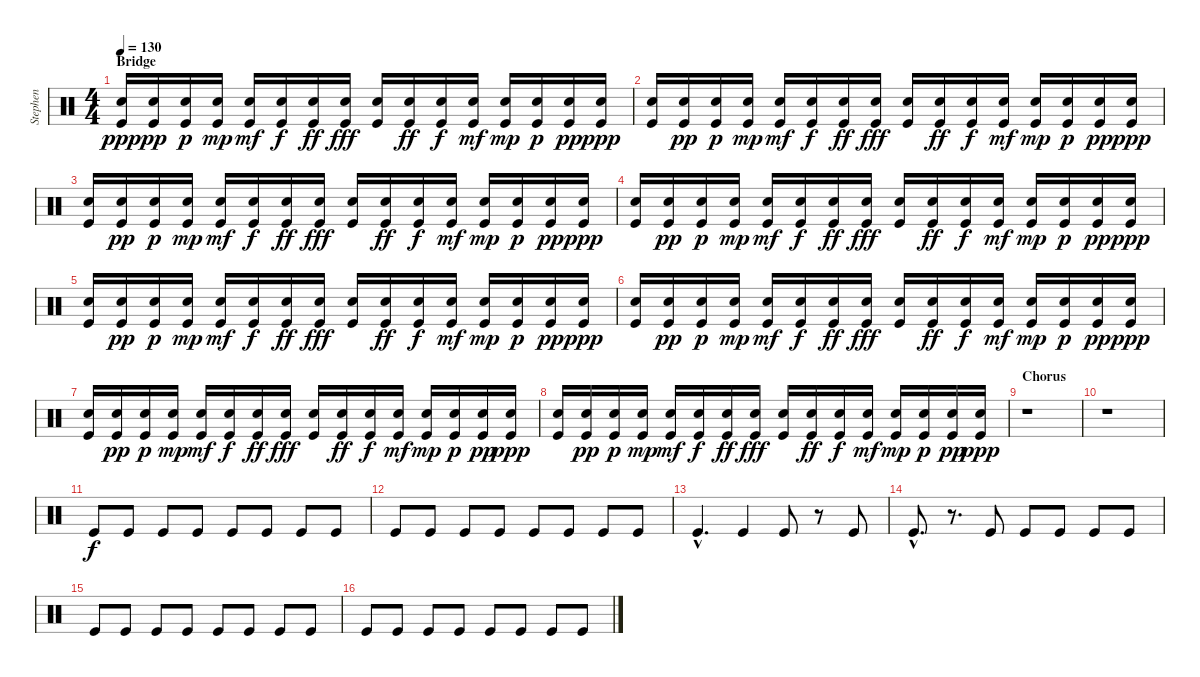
\track ("Stephen" "Stephen") {instrument percussion}
\staff {score}
\articulation defaults
\ts (4 4)
\section ("" "Bridge")
\tempo 130
\clef neutral
\ks c
("Electric Snare (hit)" "Kick (hit)").16{dy ppp} ("Electric Snare (hit)" "Kick (hit)").16{dy pp} ("Electric Snare (hit)" "Kick (hit)").16{dy p} ("Electric Snare (hit)" "Kick (hit)").16{dy mp} ("Electric Snare (hit)" "Kick (hit)").16{dy mf} ("Electric Snare (hit)" "Kick (hit)").16{dy f} ("Electric Snare (hit)" "Kick (hit)").16{dy ff} ("Electric Snare (hit)" "Kick (hit)").16{dy fff} ("Electric Snare (hit)" "Kick (hit)").16 ("Electric Snare (hit)" "Kick (hit)").16{dy ff} ("Electric Snare (hit)" "Kick (hit)").16{dy f} ("Electric Snare (hit)" "Kick (hit)").16{dy mf} ("Electric Snare (hit)" "Kick (hit)").16{dy mp} ("Electric Snare (hit)" "Kick (hit)").16{dy p} ("Electric Snare (hit)" "Kick (hit)").16{dy pp} ("Electric Snare (hit)" "Kick (hit)").16{dy ppp} |
("Electric Snare (hit)" "Kick (hit)").16 ("Electric Snare (hit)" "Kick (hit)").16{dy pp} ("Electric Snare (hit)" "Kick (hit)").16{dy p} ("Electric Snare (hit)" "Kick (hit)").16{dy mp} ("Electric Snare (hit)" "Kick (hit)").16{dy mf} ("Electric Snare (hit)" "Kick (hit)").16{dy f} ("Electric Snare (hit)" "Kick (hit)").16{dy ff} ("Electric Snare (hit)" "Kick (hit)").16{dy fff} ("Electric Snare (hit)" "Kick (hit)").16 ("Electric Snare (hit)" "Kick (hit)").16{dy ff} ("Electric Snare (hit)" "Kick (hit)").16{dy f} ("Electric Snare (hit)" "Kick (hit)").16{dy mf} ("Electric Snare (hit)" "Kick (hit)").16{dy mp} ("Electric Snare (hit)" "Kick (hit)").16{dy p} ("Electric Snare (hit)" "Kick (hit)").16{dy pp} ("Electric Snare (hit)" "Kick (hit)").16{dy ppp} |
("Electric Snare (hit)" "Kick (hit)").16 ("Electric Snare (hit)" "Kick (hit)").16{dy pp} ("Electric Snare (hit)" "Kick (hit)").16{dy p} ("Electric Snare (hit)" "Kick (hit)").16{dy mp} ("Electric Snare (hit)" "Kick (hit)").16{dy mf} ("Electric Snare (hit)" "Kick (hit)").16{dy f} ("Electric Snare (hit)" "Kick (hit)").16{dy ff} ("Electric Snare (hit)" "Kick (hit)").16{dy fff} ("Electric Snare (hit)" "Kick (hit)").16 ("Electric Snare (hit)" "Kick (hit)").16{dy ff} ("Electric Snare (hit)" "Kick (hit)").16{dy f} ("Electric Snare (hit)" "Kick (hit)").16{dy mf} ("Electric Snare (hit)" "Kick (hit)").16{dy mp} ("Electric Snare (hit)" "Kick (hit)").16{dy p} ("Electric Snare (hit)" "Kick (hit)").16{dy pp} ("Electric Snare (hit)" "Kick (hit)").16{dy ppp} |
("Electric Snare (hit)" "Kick (hit)").16 ("Electric Snare (hit)" "Kick (hit)").16{dy pp} ("Electric Snare (hit)" "Kick (hit)").16{dy p} ("Electric Snare (hit)" "Kick (hit)").16{dy mp} ("Electric Snare (hit)" "Kick (hit)").16{dy mf} ("Electric Snare (hit)" "Kick (hit)").16{dy f} ("Electric Snare (hit)" "Kick (hit)").16{dy ff} ("Electric Snare (hit)" "Kick (hit)").16{dy fff} ("Electric Snare (hit)" "Kick (hit)").16 ("Electric Snare (hit)" "Kick (hit)").16{dy ff} ("Electric Snare (hit)" "Kick (hit)").16{dy f} ("Electric Snare (hit)" "Kick (hit)").16{dy mf} ("Electric Snare (hit)" "Kick (hit)").16{dy mp} ("Electric Snare (hit)" "Kick (hit)").16{dy p} ("Electric Snare (hit)" "Kick (hit)").16{dy pp} ("Electric Snare (hit)" "Kick (hit)").16{dy ppp} |
("Electric Snare (hit)" "Kick (hit)").16 ("Electric Snare (hit)" "Kick (hit)").16{dy pp} ("Electric Snare (hit)" "Kick (hit)").16{dy p} ("Electric Snare (hit)" "Kick (hit)").16{dy mp} ("Electric Snare (hit)" "Kick (hit)").16{dy mf} ("Electric Snare (hit)" "Kick (hit)").16{dy f} ("Electric Snare (hit)" "Kick (hit)").16{dy ff} ("Electric Snare (hit)" "Kick (hit)").16{dy fff} ("Electric Snare (hit)" "Kick (hit)").16 ("Electric Snare (hit)" "Kick (hit)").16{dy ff} ("Electric Snare (hit)" "Kick (hit)").16{dy f} ("Electric Snare (hit)" "Kick (hit)").16{dy mf} ("Electric Snare (hit)" "Kick (hit)").16{dy mp} ("Electric Snare (hit)" "Kick (hit)").16{dy p} ("Electric Snare (hit)" "Kick (hit)").16{dy pp} ("Electric Snare (hit)" "Kick (hit)").16{dy ppp} |
("Electric Snare (hit)" "Kick (hit)").16 ("Electric Snare (hit)" "Kick (hit)").16{dy pp} ("Electric Snare (hit)" "Kick (hit)").16{dy p} ("Electric Snare (hit)" "Kick (hit)").16{dy mp} ("Electric Snare (hit)" "Kick (hit)").16{dy mf} ("Electric Snare (hit)" "Kick (hit)").16{dy f} ("Electric Snare (hit)" "Kick (hit)").16{dy ff} ("Electric Snare (hit)" "Kick (hit)").16{dy fff} ("Electric Snare (hit)" "Kick (hit)").16 ("Electric Snare (hit)" "Kick (hit)").16{dy ff} ("Electric Snare (hit)" "Kick (hit)").16{dy f} ("Electric Snare (hit)" "Kick (hit)").16{dy mf} ("Electric Snare (hit)" "Kick (hit)").16{dy mp} ("Electric Snare (hit)" "Kick (hit)").16{dy p} ("Electric Snare (hit)" "Kick (hit)").16{dy pp} ("Electric Snare (hit)" "Kick (hit)").16{dy ppp} |
("Electric Snare (hit)" "Kick (hit)").16 ("Electric Snare (hit)" "Kick (hit)").16{dy pp} ("Electric Snare (hit)" "Kick (hit)").16{dy p} ("Electric Snare (hit)" "Kick (hit)").16{dy mp} ("Electric Snare (hit)" "Kick (hit)").16{dy mf} ("Electric Snare (hit)" "Kick (hit)").16{dy f} ("Electric Snare (hit)" "Kick (hit)").16{dy ff} ("Electric Snare (hit)" "Kick (hit)").16{dy fff} ("Electric Snare (hit)" "Kick (hit)").16 ("Electric Snare (hit)" "Kick (hit)").16{dy ff} ("Electric Snare (hit)" "Kick (hit)").16{dy f} ("Electric Snare (hit)" "Kick (hit)").16{dy mf} ("Electric Snare (hit)" "Kick (hit)").16{dy mp} ("Electric Snare (hit)" "Kick (hit)").16{dy p} ("Electric Snare (hit)" "Kick (hit)").16{dy pp} ("Electric Snare (hit)" "Kick (hit)").16{dy ppp} |
("Electric Snare (hit)" "Kick (hit)").16 ("Electric Snare (hit)" "Kick (hit)").16{dy pp} ("Electric Snare (hit)" "Kick (hit)").16{dy p} ("Electric Snare (hit)" "Kick (hit)").16{dy mp} ("Electric Snare (hit)" "Kick (hit)").16{dy mf} ("Electric Snare (hit)" "Kick (hit)").16{dy f} ("Electric Snare (hit)" "Kick (hit)").16{dy ff} ("Electric Snare (hit)" "Kick (hit)").16{dy fff} ("Electric Snare (hit)" "Kick (hit)").16 ("Electric Snare (hit)" "Kick (hit)").16{dy ff} ("Electric Snare (hit)" "Kick (hit)").16{dy f} ("Electric Snare (hit)" "Kick (hit)").16{dy mf} ("Electric Snare (hit)" "Kick (hit)").16{dy mp} ("Electric Snare (hit)" "Kick (hit)").16{dy p} ("Electric Snare (hit)" "Kick (hit)").16{dy pp} ("Electric Snare (hit)" "Kick (hit)").16{dy ppp} |
\section ("" "Chorus")
r.1 |
r.1 |
"Kick (hit)".8{dy f} "Kick (hit)".8 "Kick (hit)".8 "Kick (hit)".8 "Kick (hit)".8 "Kick (hit)".8 "Kick (hit)".8 "Kick (hit)".8 |
"Kick (hit)".8 "Kick (hit)".8 "Kick (hit)".8 "Kick (hit)".8 "Kick (hit)".8 "Kick (hit)".8 "Kick (hit)".8 "Kick (hit)".8 |
"Kick (hit)"{hac}.4{d} "Kick (hit)".4 "Kick (hit)".8 r.8 "Kick (hit)".8 |
"Kick (hit)"{hac}.8{d} r.8{d} "Kick (hit)".8 "Kick (hit)".8 "Kick (hit)".8 "Kick (hit)".8 "Kick (hit)".8 |
"Kick (hit)".8 "Kick (hit)".8 "Kick (hit)".8 "Kick (hit)".8 "Kick (hit)".8 "Kick (hit)".8 "Kick (hit)".8 "Kick (hit)".8 |
"Kick (hit)".8 "Kick (hit)".8 "Kick (hit)".8 "Kick (hit)".8 "Kick (hit)".8 "Kick (hit)".8 "Kick (hit)".8 "Kick (hit)".8
